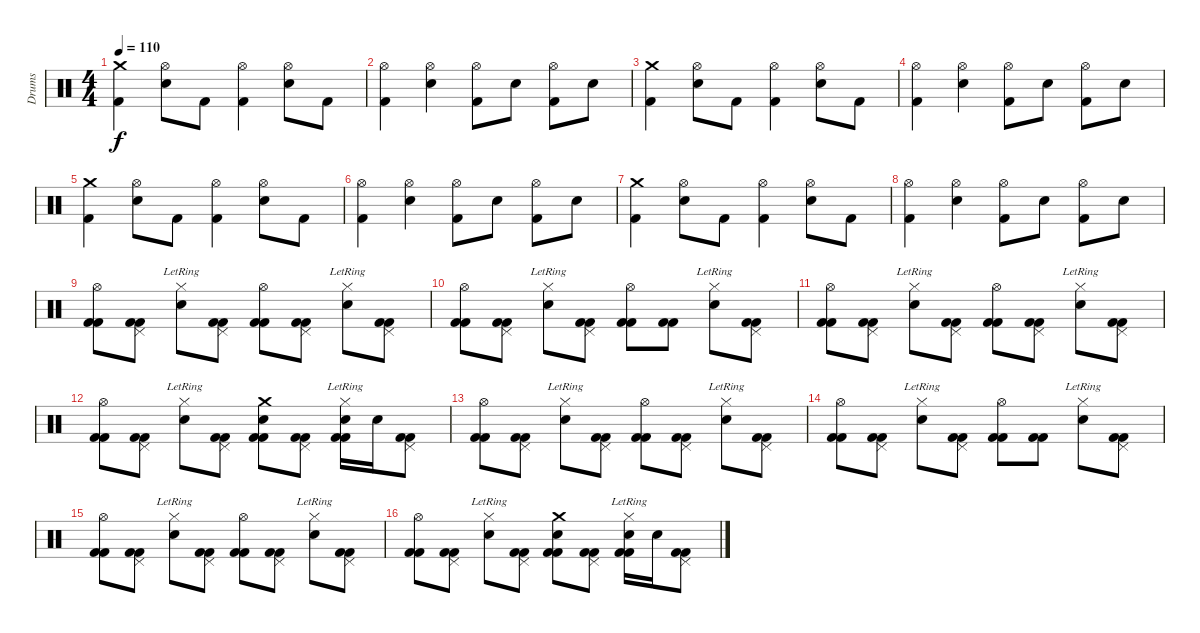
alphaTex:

\track ("Drums" "Drums") {instrument percussion}
\staff {score}
\articulation defaults
\ts (4 4)
\tempo 110
\clef neutral
\ks c
("Crash medium (hit)" "Kick (hit) 2").4{dy f} ("Hi-Hat (open)" "Electric Snare (hit)").8 "Kick (hit) 2".8 ("Hi-Hat (open)" "Kick (hit) 2").4 ("Hi-Hat (open)" "Electric Snare (hit)").8 "Kick (hit) 2".8 |
("Hi-Hat (open)" "Kick (hit) 2").4 ("Hi-Hat (open)" "Electric Snare (hit)").4 ("Hi-Hat (open)" "Kick (hit) 2").8 "Electric Snare (hit)".8 ("Hi-Hat (open)" "Kick (hit) 2").8 "Electric Snare (hit)".8 |
("Crash medium (hit)" "Kick (hit) 2").4 ("Hi-Hat (open)" "Electric Snare (hit)").8 "Kick (hit) 2".8 ("Hi-Hat (open)" "Kick (hit) 2").4 ("Hi-Hat (open)" "Electric Snare (hit)").8 "Kick (hit) 2".8 |
("Hi-Hat (open)" "Kick (hit) 2").4 ("Hi-Hat (open)" "Electric Snare (hit)").4 ("Hi-Hat (open)" "Kick (hit) 2").8 "Electric Snare (hit)".8 ("Hi-Hat (open)" "Kick (hit) 2").8 "Electric Snare (hit)".8 |
("Crash medium (hit)" "Kick (hit) 2").4 ("Hi-Hat (open)" "Electric Snare (hit)").8 "Kick (hit) 2".8 ("Hi-Hat (open)" "Kick (hit) 2").4 ("Hi-Hat (open)" "Electric Snare (hit)").8 "Kick (hit) 2".8 |
("Hi-Hat (open)" "Kick (hit) 2").4 ("Hi-Hat (open)" "Electric Snare (hit)").4 ("Hi-Hat (open)" "Kick (hit) 2").8 "Electric Snare (hit)".8 ("Hi-Hat (open)" "Kick (hit) 2").8 "Electric Snare (hit)".8 |
("Crash medium (hit)" "Kick (hit) 2").4 ("Hi-Hat (open)" "Electric Snare (hit)").8 "Kick (hit) 2".8 ("Hi-Hat (open)" "Kick (hit) 2").4 ("Hi-Hat (open)" "Electric Snare (hit)").8 "Kick (hit) 2".8 |
("Hi-Hat (open)" "Kick (hit) 2").4 ("Hi-Hat (open)" "Electric Snare (hit)").4 ("Hi-Hat (open)" "Kick (hit) 2").8 "Electric Snare (hit)".8 ("Hi-Hat (open)" "Kick (hit) 2").8 "Electric Snare (hit)".8 |
("Hi-Hat (open)" "Kick (hit) 2" "Kick (hit) 2").8 ("Pedal Hi-Hat (hit)" "Kick (hit) 2" "Kick (hit) 2").8 ("Hi-Hat (closed)" "Electric Snare (hit)"{lr}).8 ("Pedal Hi-Hat (hit)" "Kick (hit) 2" "Kick (hit) 2").8 ("Hi-Hat (open)" "Kick (hit) 2" "Kick (hit) 2").8 ("Pedal Hi-Hat (hit)" "Kick (hit) 2" "Kick (hit) 2").8 ("Hi-Hat (closed)" "Electric Snare (hit)"{lr}).8 ("Pedal Hi-Hat (hit)" "Kick (hit) 2" "Kick (hit) 2").8 |
("Hi-Hat (open)" "Kick (hit) 2" "Kick (hit) 2").8 ("Pedal Hi-Hat (hit)" "Kick (hit) 2" "Kick (hit) 2").8 ("Hi-Hat (closed)" "Electric Snare (hit)"{lr}).8 ("Pedal Hi-Hat (hit)" "Kick (hit) 2" "Kick (hit) 2").8 ("Hi-Hat (open)" "Kick (hit) 2" "Kick (hit) 2").8 ("Kick (hit) 2" "Kick (hit) 2").8 ("Hi-Hat (closed)" "Electric Snare (hit)"{lr}).8 ("Pedal Hi-Hat (hit)" "Kick (hit) 2" "Kick (hit) 2").8 |
("Hi-Hat (open)" "Kick (hit) 2" "Kick (hit) 2").8 ("Pedal Hi-Hat (hit)" "Kick (hit) 2" "Kick (hit) 2").8 ("Hi-Hat (closed)" "Electric Snare (hit)"{lr}).8 ("Pedal Hi-Hat (hit)" "Kick (hit) 2" "Kick (hit) 2").8 ("Hi-Hat (open)" "Kick (hit) 2" "Kick (hit) 2").8 ("Pedal Hi-Hat (hit)" "Kick (hit) 2" "Kick (hit) 2").8 ("Hi-Hat (closed)" "Electric Snare (hit)"{lr}).8 ("Pedal Hi-Hat (hit)" "Kick (hit) 2" "Kick (hit) 2").8 |
("Hi-Hat (open)" "Kick (hit) 2" "Kick (hit) 2").8 ("Pedal Hi-Hat (hit)" "Kick (hit) 2" "Kick (hit) 2").8 ("Hi-Hat (closed)" "Electric Snare (hit)"{lr}).8 ("Pedal Hi-Hat (hit)" "Kick (hit) 2" "Kick (hit) 2").8 ("Crash medium (hit)" "Electric Snare (hit)" "Kick (hit) 2" "Kick (hit) 2").8 ("Pedal Hi-Hat (hit)" "Kick (hit) 2" "Kick (hit) 2").8 ("Hi-Hat (closed)" "Electric Snare (hit)"{lr} "Kick (hit) 2" "Kick (hit) 2").16 "Electric Snare (hit)".16 ("Pedal Hi-Hat (hit)" "Kick (hit) 2" "Kick (hit) 2").8 |
("Hi-Hat (open)" "Kick (hit) 2" "Kick (hit) 2").8 ("Pedal Hi-Hat (hit)" "Kick (hit) 2" "Kick (hit) 2").8 ("Hi-Hat (closed)" "Electric Snare (hit)"{lr}).8 ("Pedal Hi-Hat (hit)" "Kick (hit) 2" "Kick (hit) 2").8 ("Hi-Hat (open)" "Kick (hit) 2" "Kick (hit) 2").8 ("Pedal Hi-Hat (hit)" "Kick (hit) 2" "Kick (hit) 2").8 ("Hi-Hat (closed)" "Electric Snare (hit)"{lr}).8 ("Pedal Hi-Hat (hit)" "Kick (hit) 2" "Kick (hit) 2").8 |
("Hi-Hat (open)" "Kick (hit) 2" "Kick (hit) 2").8 ("Pedal Hi-Hat (hit)" "Kick (hit) 2" "Kick (hit) 2").8 ("Hi-Hat (closed)" "Electric Snare (hit)"{lr}).8 ("Pedal Hi-Hat (hit)" "Kick (hit) 2" "Kick (hit) 2").8 ("Hi-Hat (open)" "Kick (hit) 2" "Kick (hit) 2").8 ("Kick (hit) 2" "Kick (hit) 2").8 ("Hi-Hat (closed)" "Electric Snare (hit)"{lr}).8 ("Pedal Hi-Hat (hit)" "Kick (hit) 2" "Kick (hit) 2").8 |
("Hi-Hat (open)" "Kick (hit) 2" "Kick (hit) 2").8 ("Pedal Hi-Hat (hit)" "Kick (hit) 2" "Kick (hit) 2").8 ("Hi-Hat (closed)" "Electric Snare (hit)"{lr}).8 ("Pedal Hi-Hat (hit)" "Kick (hit) 2" "Kick (hit) 2").8 ("Hi-Hat (open)" "Kick (hit) 2" "Kick (hit) 2").8 ("Pedal Hi-Hat (hit)" "Kick (hit) 2" "Kick (hit) 2").8 ("Hi-Hat (closed)" "Electric Snare (hit)"{lr}).8 ("Pedal Hi-Hat (hit)" "Kick (hit) 2" "Kick (hit) 2").8 |
("Hi-Hat (open)" "Kick (hit) 2" "Kick (hit) 2").8 ("Pedal Hi-Hat (hit)" "Kick (hit) 2" "Kick (hit) 2").8 ("Hi-Hat (closed)" "Electric Snare (hit)"{lr}).8 ("Pedal Hi-Hat (hit)" "Kick (hit) 2" "Kick (hit) 2").8 ("Crash medium (hit)" "Electric Snare (hit)" "Kick (hit) 2" "Kick (hit) 2").8 ("Pedal Hi-Hat (hit)" "Kick (hit) 2" "Kick (hit) 2").8 ("Hi-Hat (closed)" "Electric Snare (hit)"{lr} "Kick (hit) 2" "Kick (hit) 2").16 "Electric Snare (hit)".16 ("Pedal Hi-Hat (hit)" "Kick (hit) 2" "Kick (hit) 2").8
